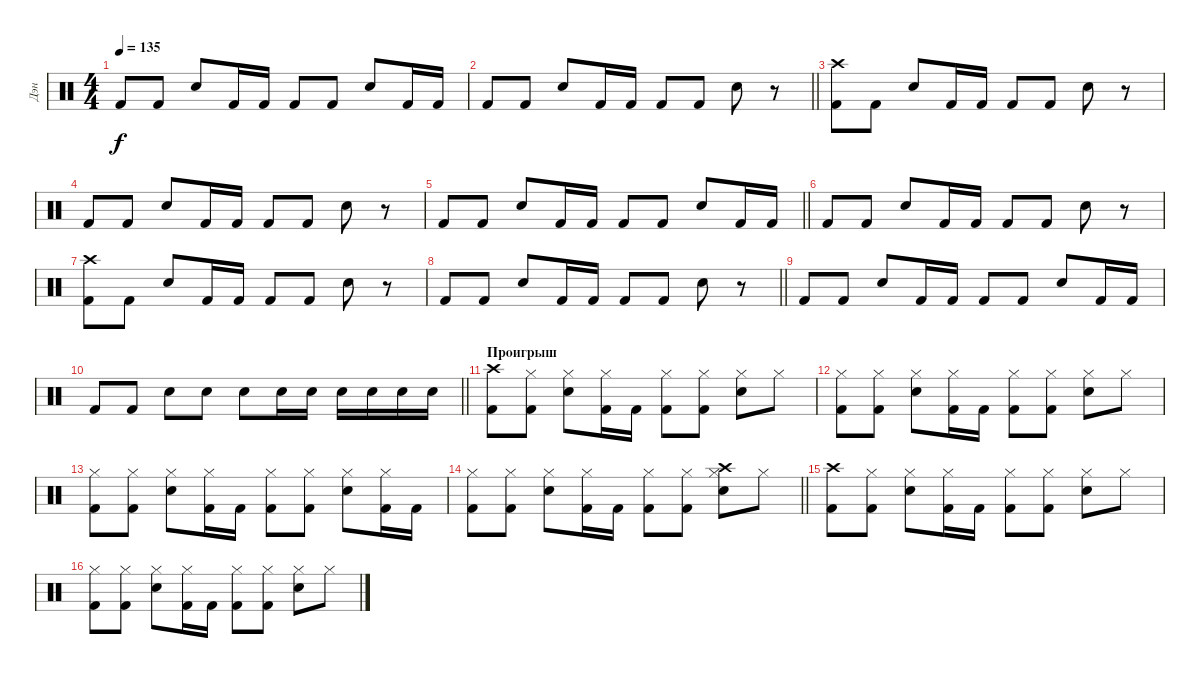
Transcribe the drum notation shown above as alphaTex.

\track ("Дэн" "Дэн") {instrument percussion}
\staff {score}
\articulation defaults
\ts (4 4)
\tempo 135
\clef neutral
\ks c "Kick (hit) 2".8{dy f} "Kick (hit) 2".8 "Electric Snare (hit)".8 "Kick (hit) 2".16 "Kick (hit) 2".16 "Kick (hit) 2".8 "Kick (hit) 2".8 "Electric Snare (hit)".8 "Kick (hit) 2".16 "Kick (hit) 2".16
|
\barLineRight lightlight "Kick (hit) 2".8 "Kick (hit) 2".8 "Electric Snare (hit)".8 "Kick (hit) 2".16 "Kick (hit) 2".16 "Kick (hit) 2".8 "Kick (hit) 2".8 "Electric Snare (hit)".8
r.8 |
("Kick (hit) 2" "Crash high (hit)").8 "Kick (hit) 2".8 "Electric Snare (hit)".8 "Kick (hit) 2".16 "Kick (hit) 2".16 "Kick (hit) 2".8 "Kick (hit) 2".8 "Electric Snare (hit)".8 r.8 |
"Kick (hit) 2".8 "Kick (hit) 2".8 "Electric Snare (hit)".8 "Kick (hit) 2".16 "Kick (hit) 2".16 "Kick (hit) 2".8 "Kick (hit) 2".8 "Electric Snare (hit)".8 r.8 |
\barLineRight lightlight "Kick (hit) 2".8 "Kick (hit) 2".8 "Electric Snare (hit)".8 "Kick (hit) 2".16 "Kick (hit) 2".16 "Kick (hit) 2".8 "Kick (hit) 2".8 "Electric Snare (hit)".8 "Kick (hit) 2".16 "Kick (hit) 2".16
|
"Kick (hit) 2".8 "Kick (hit) 2".8 "Electric Snare (hit)".8 "Kick (hit) 2".16 "Kick (hit) 2".16 "Kick (hit) 2".8 "Kick (hit) 2".8 "Electric Snare (hit)".8 r.8 |
("Kick (hit) 2" "Crash high (hit)").8 "Kick (hit) 2".8 "Electric Snare (hit)".8 "Kick (hit) 2".16 "Kick (hit) 2".16 "Kick (hit) 2".8 "Kick (hit) 2".8 "Electric Snare (hit)".8 r.8 |
\barLineRight lightlight "Kick (hit) 2".8 "Kick (hit) 2".8 "Electric Snare (hit)".8 "Kick (hit) 2".16 "Kick (hit) 2".16 "Kick (hit) 2".8 "Kick (hit) 2".8 "Electric Snare (hit)".8
r.8 |
"Kick (hit) 2".8 "Kick (hit) 2".8 "Electric Snare (hit)".8 "Kick (hit) 2".16 "Kick (hit) 2".16 "Kick (hit) 2".8 "Kick (hit) 2".8 "Electric Snare (hit)".8 "Kick (hit) 2".16 "Kick (hit) 2".16 |
\barLineRight lightlight "Kick (hit) 2".8 "Kick (hit) 2".8 "Electric Snare (hit)".8 "Electric Snare (hit)".8 "Electric Snare (hit)".8 "Electric Snare (hit)".16 "Electric Snare (hit)".16 "Electric Snare (hit)".16 "Electric Snare (hit)".16 "Electric Snare (hit)".16 "Electric Snare (hit)".16
|
\section ("" "Проигрыш")
("Kick (hit) 2" "Crash high (hit)").8 ("Kick (hit) 2" "Hi-Hat (closed)").8 ("Electric Snare (hit)" "Hi-Hat (closed)").8 ("Kick (hit) 2" "Hi-Hat (closed)").16 "Kick (hit) 2".16 ("Kick (hit) 2" "Hi-Hat (closed)").8 ("Kick (hit) 2" "Hi-Hat (closed)").8 ("Electric Snare (hit)" "Hi-Hat (closed)").8 "Hi-Hat (closed)".8 |
("Kick (hit) 2" "Hi-Hat (closed)").8 ("Kick (hit) 2" "Hi-Hat (closed)").8 ("Electric Snare (hit)" "Hi-Hat (closed)").8 ("Kick (hit) 2" "Hi-Hat (closed)").16 "Kick (hit) 2".16 ("Kick (hit) 2" "Hi-Hat (closed)").8 ("Kick (hit) 2" "Hi-Hat (closed)").8 ("Electric Snare (hit)" "Hi-Hat (closed)").8 "Hi-Hat (closed)".8 |
("Kick (hit) 2" "Hi-Hat (closed)").8 ("Kick (hit) 2" "Hi-Hat (closed)").8 ("Electric Snare (hit)" "Hi-Hat (closed)").8 ("Kick (hit) 2" "Hi-Hat (closed)").16 "Kick (hit) 2".16 ("Kick (hit) 2" "Hi-Hat (closed)").8 ("Kick (hit) 2" "Hi-Hat (closed)").8 ("Electric Snare (hit)" "Hi-Hat (closed)").8 ("Kick (hit) 2" "Hi-Hat (closed)").16 "Kick (hit) 2".16 |
\barLineRight lightlight
("Kick (hit) 2" "Hi-Hat (closed)").8 ("Kick (hit) 2" "Hi-Hat (closed)").8 ("Electric Snare (hit)" "Hi-Hat (closed)").8 ("Kick (hit) 2" "Hi-Hat (closed)").16 "Kick (hit) 2".16 ("Kick (hit) 2" "Hi-Hat (closed)").8 ("Kick (hit) 2" "Hi-Hat (closed)").8 ("Electric Snare (hit)" "Crash high (hit)" "Hi-Hat (closed)").8 "Hi-Hat (closed)".8 |
("Kick (hit) 2" "Crash high (hit)").8 ("Kick (hit) 2" "Hi-Hat (closed)").8 ("Electric Snare (hit)" "Hi-Hat (closed)").8 ("Kick (hit) 2" "Hi-Hat (closed)").16 "Kick (hit) 2".16 ("Kick (hit) 2" "Hi-Hat (closed)").8 ("Kick (hit) 2" "Hi-Hat (closed)").8 ("Electric Snare (hit)" "Hi-Hat (closed)").8 "Hi-Hat (closed)".8 |
("Kick (hit) 2" "Hi-Hat (closed)").8 ("Kick (hit) 2" "Hi-Hat (closed)").8 ("Electric Snare (hit)" "Hi-Hat (closed)").8 ("Kick (hit) 2" "Hi-Hat (closed)").16 "Kick (hit) 2".16 ("Kick (hit) 2" "Hi-Hat (closed)").8 ("Kick (hit) 2" "Hi-Hat (closed)").8 ("Electric Snare (hit)" "Hi-Hat (closed)").8 "Hi-Hat (closed)".8
